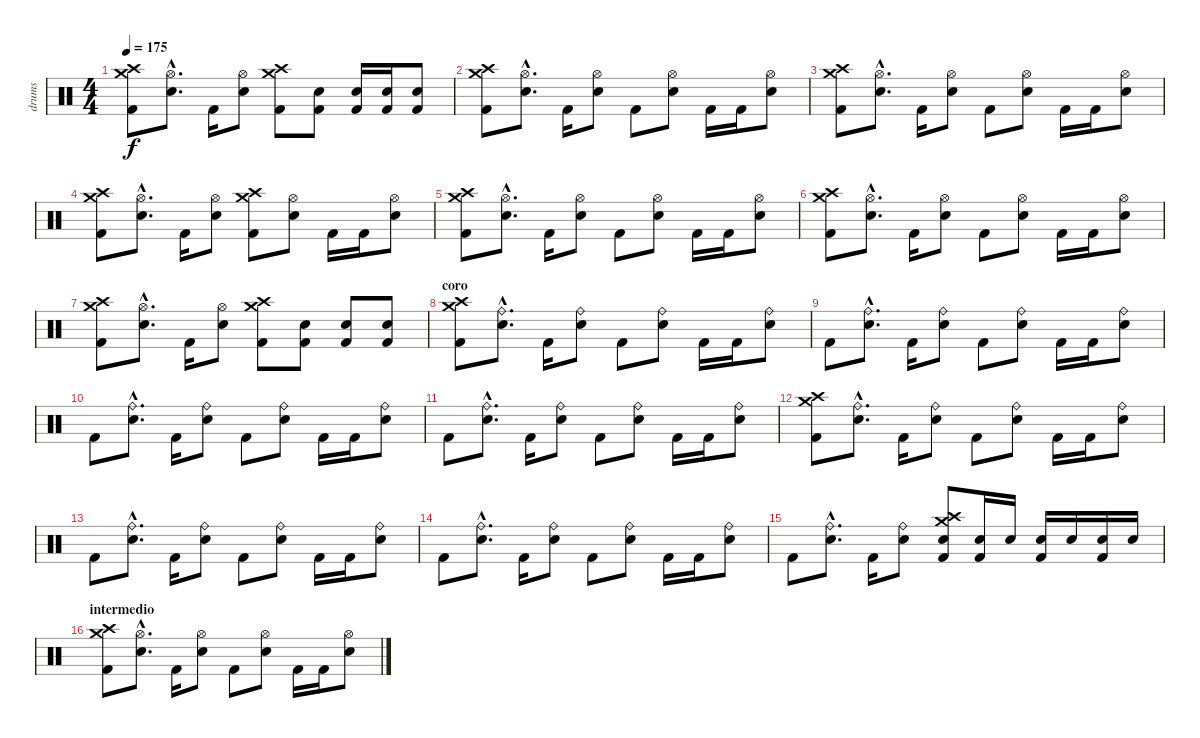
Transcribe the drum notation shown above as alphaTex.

\track ("drums" "drums") {instrument percussion}
\staff {score}
\articulation defaults
\ts (4 4)
\tempo 175
\clef neutral
\ks c
("Kick (hit) 2" "Crash high (hit)" "Crash medium (hit)").8{dy f} ("Hi-Hat (open)"{hac} "Electric Snare (hit)"{hac}).8{d} "Kick (hit) 2".16 ("Hi-Hat (open)" "Electric Snare (hit)").8 ("Kick (hit) 2" "Crash medium (hit)" "Crash high (hit)").8 ("Kick (hit) 2" "Electric Snare (hit)").8 ("Kick (hit) 2" "Electric Snare (hit)").16 ("Kick (hit) 2" "Electric Snare (hit)").16 ("Kick (hit) 2" "Electric Snare (hit)").8 |
("Kick (hit) 2" "Crash high (hit)" "Crash medium (hit)").8 ("Hi-Hat (open)"{hac} "Electric Snare (hit)"{hac}).8{d} "Kick (hit) 2".16 ("Hi-Hat (open)" "Electric Snare (hit)").8 "Kick (hit) 2".8 ("Hi-Hat (open)" "Electric Snare (hit)").8 "Kick (hit) 2".16 "Kick (hit) 2".16 ("Hi-Hat (open)" "Electric Snare (hit)").8 |
("Kick (hit) 2" "Crash high (hit)" "Crash medium (hit)").8 ("Hi-Hat (open)"{hac} "Electric Snare (hit)"{hac}).8{d} "Kick (hit) 2".16 ("Hi-Hat (open)" "Electric Snare (hit)").8 "Kick (hit) 2".8 ("Hi-Hat (open)" "Electric Snare (hit)").8 "Kick (hit) 2".16 "Kick (hit) 2".16 ("Hi-Hat (open)" "Electric Snare (hit)").8 |
("Kick (hit) 2" "Crash high (hit)" "Crash medium (hit)").8 ("Hi-Hat (open)"{hac} "Electric Snare (hit)"{hac}).8{d} "Kick (hit) 2".16 ("Hi-Hat (open)" "Electric Snare (hit)").8 ("Kick (hit) 2" "Crash medium (hit)" "Crash high (hit)").8 ("Hi-Hat (open)" "Electric Snare (hit)").8 "Kick (hit) 2".16 "Kick (hit) 2".16 ("Hi-Hat (open)" "Electric Snare (hit)").8 |
("Kick (hit) 2" "Crash high (hit)" "Crash medium (hit)").8 ("Hi-Hat (open)"{hac} "Electric Snare (hit)"{hac}).8{d} "Kick (hit) 2".16 ("Hi-Hat (open)" "Electric Snare (hit)").8 "Kick (hit) 2".8 ("Hi-Hat (open)" "Electric Snare (hit)").8 "Kick (hit) 2".16 "Kick (hit) 2".16 ("Hi-Hat (open)" "Electric Snare (hit)").8 |
("Kick (hit) 2" "Crash high (hit)" "Crash medium (hit)").8 ("Hi-Hat (open)"{hac} "Electric Snare (hit)"{hac}).8{d} "Kick (hit) 2".16 ("Hi-Hat (open)" "Electric Snare (hit)").8 "Kick (hit) 2".8 ("Hi-Hat (open)" "Electric Snare (hit)").8 "Kick (hit) 2".16 "Kick (hit) 2".16 ("Hi-Hat (open)" "Electric Snare (hit)").8 |
("Kick (hit) 2" "Crash high (hit)" "Crash medium (hit)").8 ("Hi-Hat (open)"{hac} "Electric Snare (hit)"{hac}).8{d} "Kick (hit) 2".16 ("Hi-Hat (open)" "Electric Snare (hit)").8 ("Kick (hit) 2" "Crash medium (hit)" "Crash high (hit)").8 ("Kick (hit) 2" "Electric Snare (hit)").8 ("Kick (hit) 2" "Electric Snare (hit)").8 ("Kick (hit) 2" "Electric Snare (hit)").8 |
\section ("" "coro")
("Kick (hit) 2" "Crash high (hit)" "Crash medium (hit)").8 ("Ride (bell)"{hac} "Electric Snare (hit)"{hac}).8{d} "Kick (hit) 2".16 ("Ride (bell)" "Electric Snare (hit)").8 "Kick (hit) 2".8 ("Ride (bell)" "Electric Snare (hit)").8 "Kick (hit) 2".16 "Kick (hit) 2".16 ("Ride (bell)" "Electric Snare (hit)").8 |
"Kick (hit) 2".8 ("Ride (bell)"{hac} "Electric Snare (hit)"{hac}).8{d} "Kick (hit) 2".16 ("Ride (bell)" "Electric Snare (hit)").8 "Kick (hit) 2".8 ("Ride (bell)" "Electric Snare (hit)").8 "Kick (hit) 2".16 "Kick (hit) 2".16 ("Ride (bell)" "Electric Snare (hit)").8 |
"Kick (hit) 2".8 ("Ride (bell)"{hac} "Electric Snare (hit)"{hac}).8{d} "Kick (hit) 2".16 ("Ride (bell)" "Electric Snare (hit)").8 "Kick (hit) 2".8 ("Ride (bell)" "Electric Snare (hit)").8 "Kick (hit) 2".16 "Kick (hit) 2".16 ("Ride (bell)" "Electric Snare (hit)").8 |
"Kick (hit) 2".8 ("Ride (bell)"{hac} "Electric Snare (hit)"{hac}).8{d} "Kick (hit) 2".16 ("Ride (bell)" "Electric Snare (hit)").8 "Kick (hit) 2".8 ("Ride (bell)" "Electric Snare (hit)").8 "Kick (hit) 2".16 "Kick (hit) 2".16 ("Ride (bell)" "Electric Snare (hit)").8 |
("Kick (hit) 2" "Crash high (hit)" "Crash medium (hit)").8 ("Ride (bell)"{hac} "Electric Snare (hit)"{hac}).8{d} "Kick (hit) 2".16 ("Ride (bell)" "Electric Snare (hit)").8 "Kick (hit) 2".8 ("Ride (bell)" "Electric Snare (hit)").8 "Kick (hit) 2".16 "Kick (hit) 2".16 ("Ride (bell)" "Electric Snare (hit)").8 |
"Kick (hit) 2".8 ("Ride (bell)"{hac} "Electric Snare (hit)"{hac}).8{d} "Kick (hit) 2".16 ("Ride (bell)" "Electric Snare (hit)").8 "Kick (hit) 2".8 ("Ride (bell)" "Electric Snare (hit)").8 "Kick (hit) 2".16 "Kick (hit) 2".16 ("Ride (bell)" "Electric Snare (hit)").8 |
"Kick (hit) 2".8 ("Ride (bell)"{hac} "Electric Snare (hit)"{hac}).8{d} "Kick (hit) 2".16 ("Ride (bell)" "Electric Snare (hit)").8 "Kick (hit) 2".8 ("Ride (bell)" "Electric Snare (hit)").8 "Kick (hit) 2".16 "Kick (hit) 2".16 ("Ride (bell)" "Electric Snare (hit)").8 |
"Kick (hit) 2".8 ("Ride (bell)"{hac} "Electric Snare (hit)"{hac}).8{d} "Kick (hit) 2".16 ("Ride (bell)" "Electric Snare (hit)").8 ("Crash high (hit)" "Crash medium (hit)" "Electric Snare (hit)" "Kick (hit) 2").8 ("Electric Snare (hit)" "Kick (hit) 2").16 "Electric Snare (hit)".16 ("Electric Snare (hit)" "Kick (hit) 2").16 "Electric Snare (hit)".16 ("Electric Snare (hit)" "Kick (hit) 2").16 "Electric Snare (hit)".16 |
\section ("" "intermedio")
("Kick (hit) 2" "Crash high (hit)" "Crash medium (hit)").8 ("Hi-Hat (open)"{hac} "Electric Snare (hit)"{hac}).8{d} "Kick (hit) 2".16 ("Hi-Hat (open)" "Electric Snare (hit)").8 "Kick (hit) 2".8 ("Hi-Hat (open)" "Electric Snare (hit)").8 "Kick (hit) 2".16 "Kick (hit) 2".16 ("Hi-Hat (open)" "Electric Snare (hit)").8
